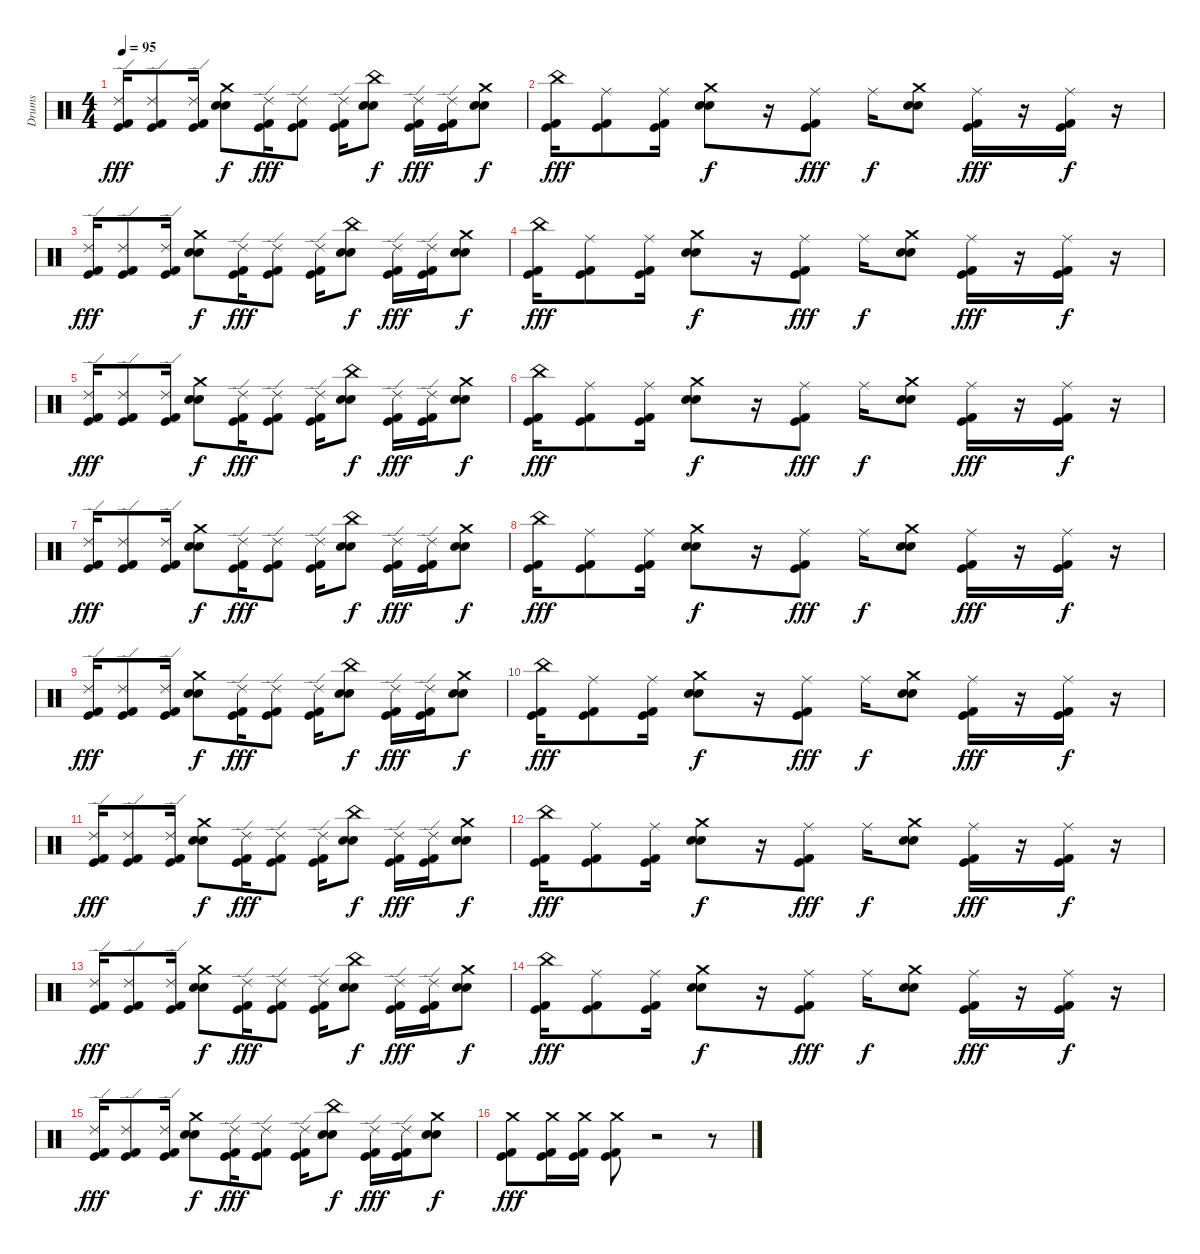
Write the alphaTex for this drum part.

\track ("Drums" "Drums") {instrument percussion}
\staff {score}
\articulation defaults
\ts (4 4)
\tempo 95
\clef neutral
\ks c
("Ride (edge) 2" "Kick (hit)" "Kick (hit) 2").16{dy fff} ("Ride (edge) 2" "Kick (hit)" "Kick (hit) 2").8 ("Ride (edge) 2" "Kick (hit)" "Kick (hit) 2").16 ("Crash medium (hit)" "Snare (hit) 2" "Snare (hit) 2").8{dy f} ("Ride (edge) 2" "Kick (hit)" "Kick (hit) 2").16{dy fff} ("Ride (edge) 2" "Kick (hit)" "Kick (hit) 2").8 ("Ride (edge) 2" "Kick (hit)" "Kick (hit) 2").16 ("China (hit)" "Snare (hit) 2" "Snare (hit) 2").8{dy f} ("Ride (edge) 2" "Kick (hit)" "Kick (hit) 2").16{dy fff} ("Ride (edge) 2" "Kick (hit)" "Kick (hit) 2").16 ("Crash medium (hit)" "Snare (hit) 2" "Snare (hit) 2").8{dy f} |
("China (hit)" "Kick (hit)" "Kick (hit) 2").16{dy fff} ("Ride (middle)" "Kick (hit)" "Kick (hit) 2").8 ("Ride (middle)" "Kick (hit)" "Kick (hit) 2").16 ("Crash medium (hit)" "Snare (hit) 2" "Snare (hit) 2").8{dy f} r.16 ("Ride (middle)" "Kick (hit)" "Kick (hit) 2").8{dy fff} "Ride (middle)".16{dy f} ("Crash medium (hit)" "Snare (hit) 2" "Snare (hit) 2").8 ("Ride (middle)" "Kick (hit)" "Kick (hit) 2").16{dy fff} r.16 ("Ride (middle)" "Kick (hit)" "Kick (hit) 2").16{dy f} r.16 |
("Ride (edge) 2" "Kick (hit)" "Kick (hit) 2").16{dy fff} ("Ride (edge) 2" "Kick (hit)" "Kick (hit) 2").8 ("Ride (edge) 2" "Kick (hit)" "Kick (hit) 2").16 ("Crash medium (hit)" "Snare (hit) 2" "Snare (hit) 2").8{dy f} ("Ride (edge) 2" "Kick (hit)" "Kick (hit) 2").16{dy fff} ("Ride (edge) 2" "Kick (hit)" "Kick (hit) 2").8 ("Ride (edge) 2" "Kick (hit)" "Kick (hit) 2").16 ("China (hit)" "Snare (hit) 2" "Snare (hit) 2").8{dy f} ("Ride (edge) 2" "Kick (hit)" "Kick (hit) 2").16{dy fff} ("Ride (edge) 2" "Kick (hit)" "Kick (hit) 2").16 ("Crash medium (hit)" "Snare (hit) 2" "Snare (hit) 2").8{dy f} |
("China (hit)" "Kick (hit)" "Kick (hit) 2").16{dy fff} ("Ride (middle)" "Kick (hit)" "Kick (hit) 2").8 ("Ride (middle)" "Kick (hit)" "Kick (hit) 2").16 ("Crash medium (hit)" "Snare (hit) 2" "Snare (hit) 2").8{dy f} r.16 ("Ride (middle)" "Kick (hit)" "Kick (hit) 2").8{dy fff} "Ride (middle)".16{dy f} ("Crash medium (hit)" "Snare (hit) 2" "Snare (hit) 2").8 ("Ride (middle)" "Kick (hit)" "Kick (hit) 2").16{dy fff} r.16 ("Ride (middle)" "Kick (hit)" "Kick (hit) 2").16{dy f} r.16 |
("Ride (edge) 2" "Kick (hit)" "Kick (hit) 2").16{dy fff} ("Ride (edge) 2" "Kick (hit)" "Kick (hit) 2").8 ("Ride (edge) 2" "Kick (hit)" "Kick (hit) 2").16 ("Crash medium (hit)" "Snare (hit) 2" "Snare (hit) 2").8{dy f} ("Ride (edge) 2" "Kick (hit)" "Kick (hit) 2").16{dy fff} ("Ride (edge) 2" "Kick (hit)" "Kick (hit) 2").8 ("Ride (edge) 2" "Kick (hit)" "Kick (hit) 2").16 ("China (hit)" "Snare (hit) 2" "Snare (hit) 2").8{dy f} ("Ride (edge) 2" "Kick (hit)" "Kick (hit) 2").16{dy fff} ("Ride (edge) 2" "Kick (hit)" "Kick (hit) 2").16 ("Crash medium (hit)" "Snare (hit) 2" "Snare (hit) 2").8{dy f} |
("China (hit)" "Kick (hit)" "Kick (hit) 2").16{dy fff} ("Ride (middle)" "Kick (hit)" "Kick (hit) 2").8 ("Ride (middle)" "Kick (hit)" "Kick (hit) 2").16 ("Crash medium (hit)" "Snare (hit) 2" "Snare (hit) 2").8{dy f} r.16 ("Ride (middle)" "Kick (hit)" "Kick (hit) 2").8{dy fff} "Ride (middle)".16{dy f} ("Crash medium (hit)" "Snare (hit) 2" "Snare (hit) 2").8 ("Ride (middle)" "Kick (hit)" "Kick (hit) 2").16{dy fff} r.16 ("Ride (middle)" "Kick (hit)" "Kick (hit) 2").16{dy f} r.16 |
("Ride (edge) 2" "Kick (hit)" "Kick (hit) 2").16{dy fff} ("Ride (edge) 2" "Kick (hit)" "Kick (hit) 2").8 ("Ride (edge) 2" "Kick (hit)" "Kick (hit) 2").16 ("Crash medium (hit)" "Snare (hit) 2" "Snare (hit) 2").8{dy f} ("Ride (edge) 2" "Kick (hit)" "Kick (hit) 2").16{dy fff} ("Ride (edge) 2" "Kick (hit)" "Kick (hit) 2").8 ("Ride (edge) 2" "Kick (hit)" "Kick (hit) 2").16 ("China (hit)" "Snare (hit) 2" "Snare (hit) 2").8{dy f} ("Ride (edge) 2" "Kick (hit)" "Kick (hit) 2").16{dy fff} ("Ride (edge) 2" "Kick (hit)" "Kick (hit) 2").16 ("Crash medium (hit)" "Snare (hit) 2" "Snare (hit) 2").8{dy f} |
("China (hit)" "Kick (hit)" "Kick (hit) 2").16{dy fff} ("Ride (middle)" "Kick (hit)" "Kick (hit) 2").8 ("Ride (middle)" "Kick (hit)" "Kick (hit) 2").16 ("Crash medium (hit)" "Snare (hit) 2" "Snare (hit) 2").8{dy f} r.16 ("Ride (middle)" "Kick (hit)" "Kick (hit) 2").8{dy fff} "Ride (middle)".16{dy f} ("Crash medium (hit)" "Snare (hit) 2" "Snare (hit) 2").8 ("Ride (middle)" "Kick (hit)" "Kick (hit) 2").16{dy fff} r.16 ("Ride (middle)" "Kick (hit)" "Kick (hit) 2").16{dy f} r.16 |
("Ride (edge) 2" "Kick (hit)" "Kick (hit) 2").16{dy fff} ("Ride (edge) 2" "Kick (hit)" "Kick (hit) 2").8 ("Ride (edge) 2" "Kick (hit)" "Kick (hit) 2").16 ("Crash medium (hit)" "Snare (hit) 2" "Snare (hit) 2").8{dy f} ("Ride (edge) 2" "Kick (hit)" "Kick (hit) 2").16{dy fff} ("Ride (edge) 2" "Kick (hit)" "Kick (hit) 2").8 ("Ride (edge) 2" "Kick (hit)" "Kick (hit) 2").16 ("China (hit)" "Snare (hit) 2" "Snare (hit) 2").8{dy f} ("Ride (edge) 2" "Kick (hit)" "Kick (hit) 2").16{dy fff} ("Ride (edge) 2" "Kick (hit)" "Kick (hit) 2").16 ("Crash medium (hit)" "Snare (hit) 2" "Snare (hit) 2").8{dy f} |
("China (hit)" "Kick (hit)" "Kick (hit) 2").16{dy fff} ("Ride (middle)" "Kick (hit)" "Kick (hit) 2").8 ("Ride (middle)" "Kick (hit)" "Kick (hit) 2").16 ("Crash medium (hit)" "Snare (hit) 2" "Snare (hit) 2").8{dy f} r.16 ("Ride (middle)" "Kick (hit)" "Kick (hit) 2").8{dy fff} "Ride (middle)".16{dy f} ("Crash medium (hit)" "Snare (hit) 2" "Snare (hit) 2").8 ("Ride (middle)" "Kick (hit)" "Kick (hit) 2").16{dy fff} r.16 ("Ride (middle)" "Kick (hit)" "Kick (hit) 2").16{dy f} r.16 |
("Ride (edge) 2" "Kick (hit)" "Kick (hit) 2").16{dy fff} ("Ride (edge) 2" "Kick (hit)" "Kick (hit) 2").8 ("Ride (edge) 2" "Kick (hit)" "Kick (hit) 2").16 ("Crash medium (hit)" "Snare (hit) 2" "Snare (hit) 2").8{dy f} ("Ride (edge) 2" "Kick (hit)" "Kick (hit) 2").16{dy fff} ("Ride (edge) 2" "Kick (hit)" "Kick (hit) 2").8 ("Ride (edge) 2" "Kick (hit)" "Kick (hit) 2").16 ("China (hit)" "Snare (hit) 2" "Snare (hit) 2").8{dy f} ("Ride (edge) 2" "Kick (hit)" "Kick (hit) 2").16{dy fff} ("Ride (edge) 2" "Kick (hit)" "Kick (hit) 2").16 ("Crash medium (hit)" "Snare (hit) 2" "Snare (hit) 2").8{dy f} |
("China (hit)" "Kick (hit)" "Kick (hit) 2").16{dy fff} ("Ride (middle)" "Kick (hit)" "Kick (hit) 2").8 ("Ride (middle)" "Kick (hit)" "Kick (hit) 2").16 ("Crash medium (hit)" "Snare (hit) 2" "Snare (hit) 2").8{dy f} r.16 ("Ride (middle)" "Kick (hit)" "Kick (hit) 2").8{dy fff} "Ride (middle)".16{dy f} ("Crash medium (hit)" "Snare (hit) 2" "Snare (hit) 2").8 ("Ride (middle)" "Kick (hit)" "Kick (hit) 2").16{dy fff} r.16 ("Ride (middle)" "Kick (hit)" "Kick (hit) 2").16{dy f} r.16 |
("Ride (edge) 2" "Kick (hit)" "Kick (hit) 2").16{dy fff} ("Ride (edge) 2" "Kick (hit)" "Kick (hit) 2").8 ("Ride (edge) 2" "Kick (hit)" "Kick (hit) 2").16 ("Crash medium (hit)" "Snare (hit) 2" "Snare (hit) 2").8{dy f} ("Ride (edge) 2" "Kick (hit)" "Kick (hit) 2").16{dy fff} ("Ride (edge) 2" "Kick (hit)" "Kick (hit) 2").8 ("Ride (edge) 2" "Kick (hit)" "Kick (hit) 2").16 ("China (hit)" "Snare (hit) 2" "Snare (hit) 2").8{dy f} ("Ride (edge) 2" "Kick (hit)" "Kick (hit) 2").16{dy fff} ("Ride (edge) 2" "Kick (hit)" "Kick (hit) 2").16 ("Crash medium (hit)" "Snare (hit) 2" "Snare (hit) 2").8{dy f} |
("China (hit)" "Kick (hit)" "Kick (hit) 2").16{dy fff} ("Ride (middle)" "Kick (hit)" "Kick (hit) 2").8 ("Ride (middle)" "Kick (hit)" "Kick (hit) 2").16 ("Crash medium (hit)" "Snare (hit) 2" "Snare (hit) 2").8{dy f} r.16 ("Ride (middle)" "Kick (hit)" "Kick (hit) 2").8{dy fff} "Ride (middle)".16{dy f} ("Crash medium (hit)" "Snare (hit) 2" "Snare (hit) 2").8 ("Ride (middle)" "Kick (hit)" "Kick (hit) 2").16{dy fff} r.16 ("Ride (middle)" "Kick (hit)" "Kick (hit) 2").16{dy f} r.16 |
("Ride (edge) 2" "Kick (hit)" "Kick (hit) 2").16{dy fff} ("Ride (edge) 2" "Kick (hit)" "Kick (hit) 2").8 ("Ride (edge) 2" "Kick (hit)" "Kick (hit) 2").16 ("Crash medium (hit)" "Snare (hit) 2" "Snare (hit) 2").8{dy f} ("Ride (edge) 2" "Kick (hit)" "Kick (hit) 2").16{dy fff} ("Ride (edge) 2" "Kick (hit)" "Kick (hit) 2").8 ("Ride (edge) 2" "Kick (hit)" "Kick (hit) 2").16 ("China (hit)" "Snare (hit) 2" "Snare (hit) 2").8{dy f} ("Ride (edge) 2" "Kick (hit)" "Kick (hit) 2").16{dy fff} ("Ride (edge) 2" "Kick (hit)" "Kick (hit) 2").16 ("Crash medium (hit)" "Snare (hit) 2" "Snare (hit) 2").8{dy f} |
("Crash medium (hit)" "Kick (hit)" "Kick (hit) 2").8{dy fff} ("Crash medium (hit)" "Kick (hit)" "Kick (hit) 2").16 ("Crash medium (hit)" "Kick (hit)" "Kick (hit) 2").16 ("Crash medium (hit)" "Kick (hit)" "Kick (hit) 2").8 r.2 r.8
